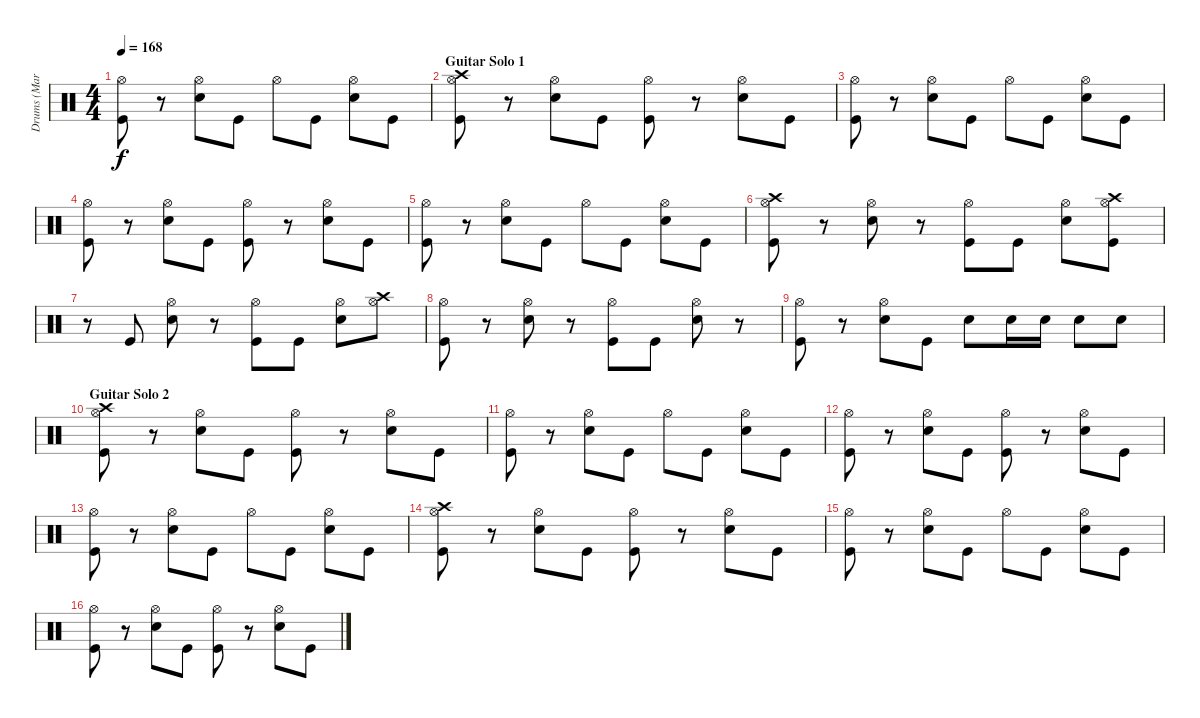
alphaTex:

\track ("Drums (Mark Michals)" "Drums (Mar") {instrument percussion}
\staff {score}
\articulation defaults
\ts (4 4)
\tempo 168
\clef neutral
\ks c
("Hi-Hat (open)" "Kick (hit)").8{dy f} r.8 ("Hi-Hat (open)" "Snare (hit) 2").8 "Kick (hit)".8 "Hi-Hat (open)".8 "Kick (hit)".8 ("Hi-Hat (open)" "Snare (hit) 2").8 "Kick (hit)".8 |
\section ("" "Guitar Solo 1")
("Hi-Hat (open)" "Crash high (hit)" "Kick (hit)").8 r.8 ("Hi-Hat (open)" "Snare (hit) 2").8 "Kick (hit)".8 ("Hi-Hat (open)" "Kick (hit)").8 r.8 ("Hi-Hat (open)" "Snare (hit) 2").8 "Kick (hit)".8 |
("Hi-Hat (open)" "Kick (hit)").8 r.8 ("Hi-Hat (open)" "Snare (hit) 2").8 "Kick (hit)".8 "Hi-Hat (open)".8 "Kick (hit)".8 ("Hi-Hat (open)" "Snare (hit) 2").8 "Kick (hit)".8 |
("Hi-Hat (open)" "Kick (hit)").8 r.8 ("Hi-Hat (open)" "Snare (hit) 2").8 "Kick (hit)".8 ("Hi-Hat (open)" "Kick (hit)").8 r.8 ("Hi-Hat (open)" "Snare (hit) 2").8 "Kick (hit)".8 |
("Hi-Hat (open)" "Kick (hit)").8 r.8 ("Hi-Hat (open)" "Snare (hit) 2").8 "Kick (hit)".8 "Hi-Hat (open)".8 "Kick (hit)".8 ("Hi-Hat (open)" "Snare (hit) 2").8 "Kick (hit)".8 |
("Hi-Hat (open)" "Crash high (hit)" "Kick (hit)").8 r.8 ("Hi-Hat (open)" "Snare (hit) 2").8 r.8 ("Hi-Hat (open)" "Kick (hit)").8 "Kick (hit)".8 ("Hi-Hat (open)" "Snare (hit) 2").8 ("Hi-Hat (open)" "Crash high (hit)" "Kick (hit)").8 |
r.8 "Kick (hit)".8 ("Hi-Hat (open)" "Snare (hit) 2").8 r.8 ("Hi-Hat (open)" "Kick (hit)").8 "Kick (hit)".8 ("Hi-Hat (open)" "Snare (hit) 2").8 ("Hi-Hat (open)" "Crash high (hit)").8 |
("Hi-Hat (open)" "Kick (hit)").8 r.8 ("Hi-Hat (open)" "Snare (hit) 2").8 r.8 ("Hi-Hat (open)" "Kick (hit)").8 "Kick (hit)".8 ("Hi-Hat (open)" "Snare (hit) 2").8 r.8 |
("Hi-Hat (open)" "Kick (hit)").8 r.8 ("Hi-Hat (open)" "Snare (hit) 2").8 "Kick (hit)".8 "Snare (hit) 2".8 "Snare (hit) 2".16 "Snare (hit) 2".16 "Snare (hit) 2".8 "Snare (hit) 2".8 |
\section ("" "Guitar Solo 2")
("Hi-Hat (open)" "Crash high (hit)" "Kick (hit)").8 r.8 ("Hi-Hat (open)" "Snare (hit) 2").8 "Kick (hit)".8 ("Hi-Hat (open)" "Kick (hit)").8 r.8 ("Hi-Hat (open)" "Snare (hit) 2").8 "Kick (hit)".8 |
("Hi-Hat (open)" "Kick (hit)").8 r.8 ("Hi-Hat (open)" "Snare (hit) 2").8 "Kick (hit)".8 "Hi-Hat (open)".8 "Kick (hit)".8 ("Hi-Hat (open)" "Snare (hit) 2").8 "Kick (hit)".8 |
("Hi-Hat (open)" "Kick (hit)").8 r.8 ("Hi-Hat (open)" "Snare (hit) 2").8 "Kick (hit)".8 ("Hi-Hat (open)" "Kick (hit)").8 r.8 ("Hi-Hat (open)" "Snare (hit) 2").8 "Kick (hit)".8 |
("Hi-Hat (open)" "Kick (hit)").8 r.8 ("Hi-Hat (open)" "Snare (hit) 2").8 "Kick (hit)".8 "Hi-Hat (open)".8 "Kick (hit)".8 ("Hi-Hat (open)" "Snare (hit) 2").8 "Kick (hit)".8 |
("Hi-Hat (open)" "Crash high (hit)" "Kick (hit)").8 r.8 ("Hi-Hat (open)" "Snare (hit) 2").8 "Kick (hit)".8 ("Hi-Hat (open)" "Kick (hit)").8 r.8 ("Hi-Hat (open)" "Snare (hit) 2").8 "Kick (hit)".8 |
("Hi-Hat (open)" "Kick (hit)").8 r.8 ("Hi-Hat (open)" "Snare (hit) 2").8 "Kick (hit)".8 "Hi-Hat (open)".8 "Kick (hit)".8 ("Hi-Hat (open)" "Snare (hit) 2").8 "Kick (hit)".8 |
("Hi-Hat (open)" "Kick (hit)").8 r.8 ("Hi-Hat (open)" "Snare (hit) 2").8 "Kick (hit)".8 ("Hi-Hat (open)" "Kick (hit)").8 r.8 ("Hi-Hat (open)" "Snare (hit) 2").8 "Kick (hit)".8
